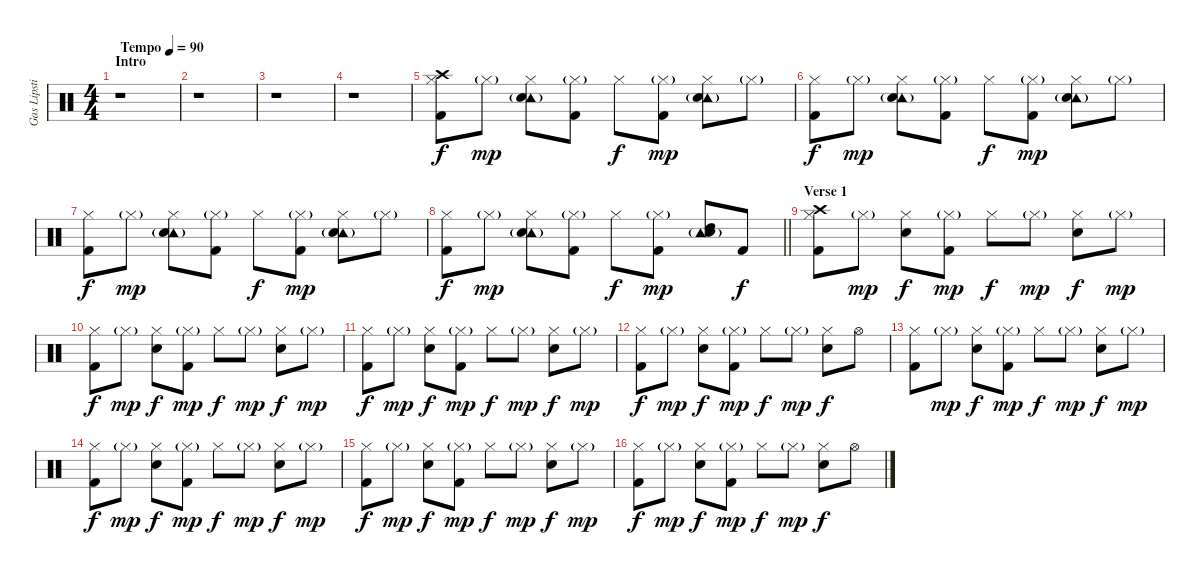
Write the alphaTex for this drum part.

\track ("Gas Lipstick (Drums)" "Gas Lipsti") {instrument percussion}
\staff {score}
\articulation defaults
\ts (4 4)
\section ("" "Intro")
\tempo (90 "Tempo")
\clef neutral
\ks c
r.1{dy f} |
r.1 |
r.1 |
r.1 |
("Crash high (hit)" "Hi-Hat (closed)" "Kick (hit) 2").8 "Hi-Hat (closed)"{g}.8{dy mp} ("Tambourine (hit)"{g} "Hi-Hat (closed)" "Snare (hit) 2").8 ("Hi-Hat (closed)"{g} "Kick (hit) 2").8 "Hi-Hat (closed)".8{dy f} ("Hi-Hat (closed)"{g} "Kick (hit) 2").8{dy mp} ("Tambourine (hit)"{g} "Hi-Hat (closed)" "Snare (hit) 2").8 "Hi-Hat (closed)"{g}.8 |
("Hi-Hat (closed)" "Kick (hit) 2").8{dy f} "Hi-Hat (closed)"{g}.8{dy mp} ("Tambourine (hit)"{g} "Hi-Hat (closed)" "Snare (hit) 2").8 ("Hi-Hat (closed)"{g} "Kick (hit) 2").8 "Hi-Hat (closed)".8{dy f} ("Hi-Hat (closed)"{g} "Kick (hit) 2").8{dy mp} ("Tambourine (hit)"{g} "Hi-Hat (closed)" "Snare (hit) 2").8 "Hi-Hat (closed)"{g}.8 |
("Hi-Hat (closed)" "Kick (hit) 2").8{dy f} "Hi-Hat (closed)"{g}.8{dy mp} ("Tambourine (hit)"{g} "Hi-Hat (closed)" "Snare (hit) 2").8 ("Hi-Hat (closed)"{g} "Kick (hit) 2").8 "Hi-Hat (closed)".8{dy f} ("Hi-Hat (closed)"{g} "Kick (hit) 2").8{dy mp} ("Tambourine (hit)"{g} "Hi-Hat (closed)" "Snare (hit) 2").8 "Hi-Hat (closed)"{g}.8 |
\barLineRight lightlight
("Hi-Hat (closed)" "Kick (hit) 2").8{dy f} "Hi-Hat (closed)"{g}.8{dy mp} ("Tambourine (hit)"{g} "Hi-Hat (closed)" "Snare (hit) 2").8 ("Hi-Hat (closed)"{g} "Kick (hit) 2").8 "Hi-Hat (closed)".8{dy f} ("Hi-Hat (closed)"{g} "Kick (hit) 2").8{dy mp} ("Tambourine (hit)"{g} "High Tom (hit)" "Snare (hit) 2").8 "Kick (hit) 2".8{dy f} |
\section ("" "Verse 1")
("Crash high (hit)" "Hi-Hat (closed)" "Kick (hit) 2").8 "Hi-Hat (closed)"{g}.8{dy mp} ("Hi-Hat (closed)" "Snare (hit) 2").8{dy f} ("Hi-Hat (closed)"{g} "Kick (hit) 2").8{dy mp} "Hi-Hat (closed)".8{dy f} "Hi-Hat (closed)"{g}.8{dy mp} ("Hi-Hat (closed)" "Snare (hit) 2").8{dy f} "Hi-Hat (closed)"{g}.8{dy mp} |
("Hi-Hat (closed)" "Kick (hit) 2").8{dy f} "Hi-Hat (closed)"{g}.8{dy mp} ("Hi-Hat (closed)" "Snare (hit) 2").8{dy f} ("Hi-Hat (closed)"{g} "Kick (hit) 2").8{dy mp} "Hi-Hat (closed)".8{dy f} "Hi-Hat (closed)"{g}.8{dy mp} ("Hi-Hat (closed)" "Snare (hit) 2").8{dy f} "Hi-Hat (closed)"{g}.8{dy mp} |
("Hi-Hat (closed)" "Kick (hit) 2").8{dy f} "Hi-Hat (closed)"{g}.8{dy mp} ("Hi-Hat (closed)" "Snare (hit) 2").8{dy f} ("Hi-Hat (closed)"{g} "Kick (hit) 2").8{dy mp} "Hi-Hat (closed)".8{dy f} "Hi-Hat (closed)"{g}.8{dy mp} ("Hi-Hat (closed)" "Snare (hit) 2").8{dy f} "Hi-Hat (closed)"{g}.8{dy mp} |
("Hi-Hat (closed)" "Kick (hit) 2").8{dy f} "Hi-Hat (closed)"{g}.8{dy mp} ("Hi-Hat (closed)" "Snare (hit) 2").8{dy f} ("Hi-Hat (closed)"{g} "Kick (hit) 2").8{dy mp} "Hi-Hat (closed)".8{dy f} "Hi-Hat (closed)"{g}.8{dy mp} ("Hi-Hat (closed)" "Snare (hit) 2").8{dy f} "Hi-Hat (open)".8 |
("Hi-Hat (closed)" "Kick (hit) 2").8 "Hi-Hat (closed)"{g}.8{dy mp} ("Hi-Hat (closed)" "Snare (hit) 2").8{dy f} ("Hi-Hat (closed)"{g} "Kick (hit) 2").8{dy mp} "Hi-Hat (closed)".8{dy f} "Hi-Hat (closed)"{g}.8{dy mp} ("Hi-Hat (closed)" "Snare (hit) 2").8{dy f} "Hi-Hat (closed)"{g}.8{dy mp} |
("Hi-Hat (closed)" "Kick (hit) 2").8{dy f} "Hi-Hat (closed)"{g}.8{dy mp} ("Hi-Hat (closed)" "Snare (hit) 2").8{dy f} ("Hi-Hat (closed)"{g} "Kick (hit) 2").8{dy mp} "Hi-Hat (closed)".8{dy f} "Hi-Hat (closed)"{g}.8{dy mp} ("Hi-Hat (closed)" "Snare (hit) 2").8{dy f} "Hi-Hat (closed)"{g}.8{dy mp} |
("Hi-Hat (closed)" "Kick (hit) 2").8{dy f} "Hi-Hat (closed)"{g}.8{dy mp} ("Hi-Hat (closed)" "Snare (hit) 2").8{dy f} ("Hi-Hat (closed)"{g} "Kick (hit) 2").8{dy mp} "Hi-Hat (closed)".8{dy f} "Hi-Hat (closed)"{g}.8{dy mp} ("Hi-Hat (closed)" "Snare (hit) 2").8{dy f} "Hi-Hat (closed)"{g}.8{dy mp} |
("Hi-Hat (closed)" "Kick (hit) 2").8{dy f} "Hi-Hat (closed)"{g}.8{dy mp} ("Hi-Hat (closed)" "Snare (hit) 2").8{dy f} ("Hi-Hat (closed)"{g} "Kick (hit) 2").8{dy mp} "Hi-Hat (closed)".8{dy f} "Hi-Hat (closed)"{g}.8{dy mp} ("Hi-Hat (closed)" "Snare (hit) 2").8{dy f} "Hi-Hat (open)".8
